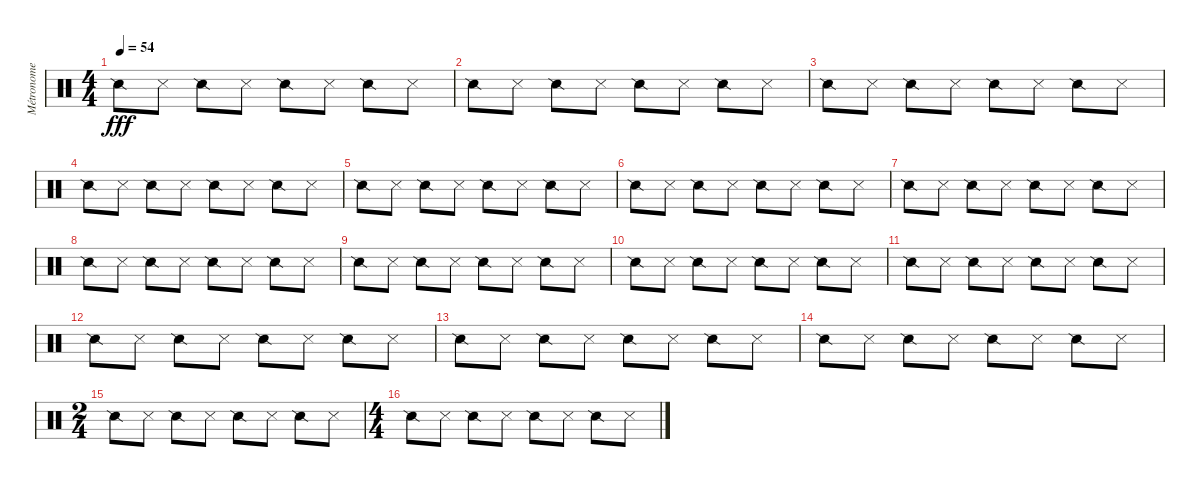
\track ("Métronome" "Métronome") {mute instrument percussion}
\staff {score}
\articulation defaults
\ts (4 4)
\tempo 54
\clef neutral
\ks c "Snare (side stick) 2".8{dy fff} "Metronome (hit)".8 "Snare (side stick) 2".8 "Metronome (hit)".8 "Snare (side stick) 2".8 "Metronome (hit)".8 "Snare (side stick) 2".8 "Metronome (hit)".8
|
"Snare (side stick) 2".8 "Metronome (hit)".8 "Snare (side stick) 2".8 "Metronome (hit)".8 "Snare (side stick) 2".8 "Metronome (hit)".8 "Snare (side stick) 2".8 "Metronome (hit)".8 |
"Snare (side stick) 2".8 "Metronome (hit)".8 "Snare (side stick) 2".8 "Metronome (hit)".8 "Snare (side stick) 2".8 "Metronome (hit)".8 "Snare (side stick) 2".8 "Metronome (hit)".8 |
"Snare (side stick) 2".8 "Metronome (hit)".8 "Snare (side stick) 2".8 "Metronome (hit)".8 "Snare (side stick) 2".8 "Metronome (hit)".8 "Snare (side stick) 2".8 "Metronome (hit)".8 |
"Snare (side stick) 2".8 "Metronome (hit)".8 "Snare (side stick) 2".8 "Metronome (hit)".8 "Snare (side stick) 2".8 "Metronome (hit)".8 "Snare (side stick) 2".8 "Metronome (hit)".8 |
"Snare (side stick) 2".8 "Metronome (hit)".8 "Snare (side stick) 2".8 "Metronome (hit)".8 "Snare (side stick) 2".8 "Metronome (hit)".8 "Snare (side stick) 2".8 "Metronome (hit)".8 |
"Snare (side stick) 2".8 "Metronome (hit)".8 "Snare (side stick) 2".8 "Metronome (hit)".8 "Snare (side stick) 2".8 "Metronome (hit)".8 "Snare (side stick) 2".8 "Metronome (hit)".8 |
"Snare (side stick) 2".8 "Metronome (hit)".8 "Snare (side stick) 2".8 "Metronome (hit)".8 "Snare (side stick) 2".8 "Metronome (hit)".8 "Snare (side stick) 2".8 "Metronome (hit)".8 |
"Snare (side stick) 2".8 "Metronome (hit)".8 "Snare (side stick) 2".8 "Metronome (hit)".8 "Snare (side stick) 2".8 "Metronome (hit)".8 "Snare (side stick) 2".8 "Metronome (hit)".8 |
"Snare (side stick) 2".8 "Metronome (hit)".8 "Snare (side stick) 2".8 "Metronome (hit)".8 "Snare (side stick) 2".8 "Metronome (hit)".8 "Snare (side stick) 2".8 "Metronome (hit)".8 |
"Snare (side stick) 2".8 "Metronome (hit)".8 "Snare (side stick) 2".8 "Metronome (hit)".8 "Snare (side stick) 2".8 "Metronome (hit)".8 "Snare (side stick) 2".8 "Metronome (hit)".8 |
"Snare (side stick) 2".8 "Metronome (hit)".8 "Snare (side stick) 2".8 "Metronome (hit)".8 "Snare (side stick) 2".8 "Metronome (hit)".8 "Snare (side stick) 2".8 "Metronome (hit)".8 |
"Snare (side stick) 2".8 "Metronome (hit)".8 "Snare (side stick) 2".8 "Metronome (hit)".8 "Snare (side stick) 2".8 "Metronome (hit)".8 "Snare (side stick) 2".8 "Metronome (hit)".8 |
"Snare (side stick) 2".8 "Metronome (hit)".8 "Snare (side stick) 2".8 "Metronome (hit)".8 "Snare (side stick) 2".8 "Metronome (hit)".8 "Snare (side stick) 2".8 "Metronome (hit)".8 |
\ts (2 4)
"Snare (side stick) 2".8 "Metronome (hit)".8 "Snare (side stick) 2".8 "Metronome (hit)".8 "Snare (side stick) 2".8 "Metronome (hit)".8 "Snare (side stick) 2".8 "Metronome (hit)".8 |
\ts (4 4)
"Snare (side stick) 2".8 "Metronome (hit)".8 "Snare (side stick) 2".8 "Metronome (hit)".8 "Snare (side stick) 2".8 "Metronome (hit)".8 "Snare (side stick) 2".8 "Metronome (hit)".8
